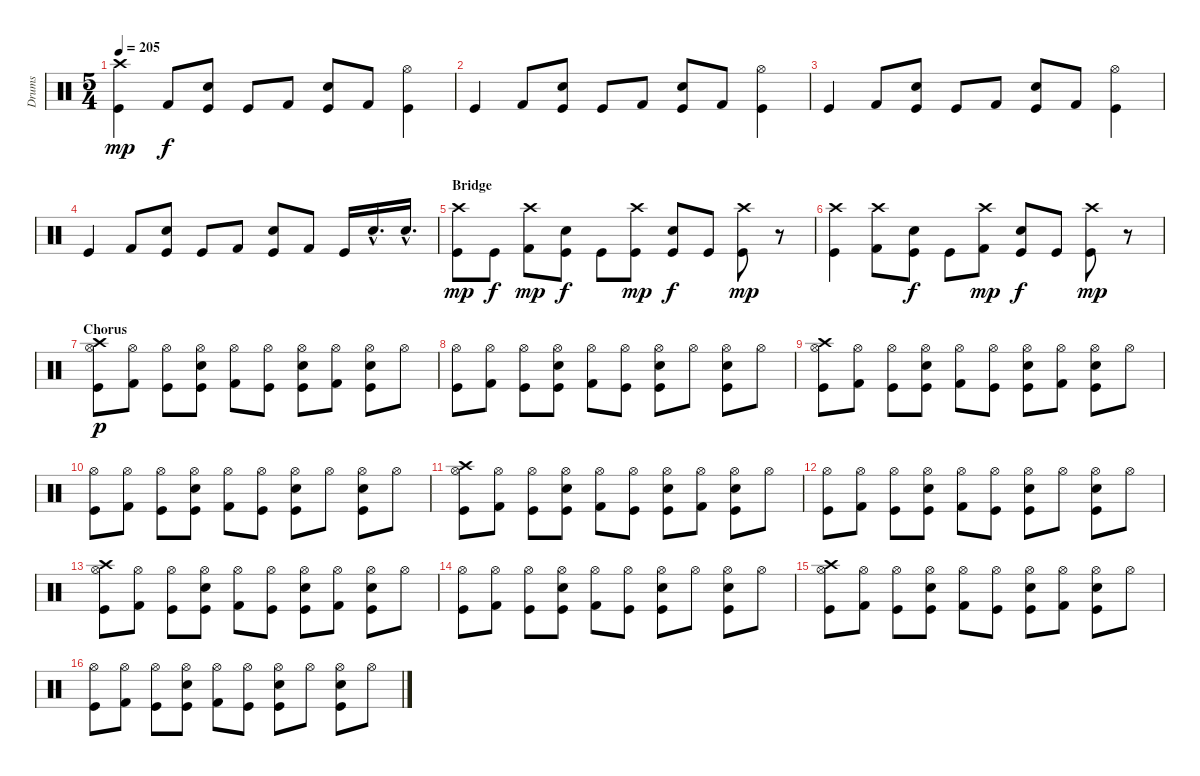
\track ("Drums" "Drums") {instrument percussion}
\staff {score}
\articulation defaults
\ts (5 4)
\tempo 205
\clef neutral
\ks c
("Crash high (hit)" "Kick (hit)").4{dy mp} "Kick (hit) 2".8{dy f} ("Snare (hit) 2" "Kick (hit)").8 "Kick (hit)".8 "Kick (hit) 2".8 ("Snare (hit) 2" "Kick (hit)").8 "Kick (hit) 2".8 ("Hi-Hat (open)" "Kick (hit)").4 |
"Kick (hit)".4 "Kick (hit) 2".8 ("Snare (hit) 2" "Kick (hit)").8 "Kick (hit)".8 "Kick (hit) 2".8 ("Snare (hit) 2" "Kick (hit)").8 "Kick (hit) 2".8 ("Hi-Hat (open)" "Kick (hit)").4 |
"Kick (hit)".4 "Kick (hit) 2".8 ("Snare (hit) 2" "Kick (hit)").8 "Kick (hit)".8 "Kick (hit) 2".8 ("Snare (hit) 2" "Kick (hit)").8 "Kick (hit) 2".8 ("Hi-Hat (open)" "Kick (hit)").4 |
"Kick (hit)".4 "Kick (hit) 2".8 ("Snare (hit) 2" "Kick (hit)").8 "Kick (hit)".8 "Kick (hit) 2".8 ("Snare (hit) 2" "Kick (hit)").8 "Kick (hit) 2".8 "Kick (hit)".16 "Snare (hit) 2"{hac}.16{d} "Snare (hit) 2"{hac}.16{d} |
\section ("" "Bridge")
("Crash high (hit)" "Kick (hit)").8{dy mp} "Kick (hit)".8{dy f} ("Crash high (hit)" "Kick (hit) 2").8{dy mp} ("Snare (hit) 2" "Kick (hit)").8{dy f} "Kick (hit)".8 ("Crash high (hit)" "Kick (hit)").8{dy mp} ("Snare (hit) 2" "Kick (hit)").8{dy f} "Kick (hit)".8 ("Crash high (hit)" "Kick (hit)").8{dy mp} r.8 |
("Crash high (hit)" "Kick (hit)").4 ("Crash high (hit)" "Kick (hit) 2").8 ("Snare (hit) 2" "Kick (hit)").8{dy f} "Kick (hit)".8 ("Crash high (hit)" "Kick (hit) 2").8{dy mp} ("Snare (hit) 2" "Kick (hit)").8{dy f} "Kick (hit)".8 ("Crash high (hit)" "Kick (hit)").8{dy mp} r.8 |
\section ("" "Chorus")
("Crash high (hit)" "Hi-Hat (open)" "Kick (hit)").8{dy p} ("Hi-Hat (open)" "Kick (hit) 2").8 ("Hi-Hat (open)" "Kick (hit)").8 ("Hi-Hat (open)" "Snare (hit) 2" "Kick (hit)").8 ("Hi-Hat (open)" "Kick (hit) 2").8 ("Hi-Hat (open)" "Kick (hit)").8 ("Hi-Hat (open)" "Snare (hit) 2" "Kick (hit)").8 ("Hi-Hat (open)" "Kick (hit) 2").8 ("Hi-Hat (open)" "Snare (hit) 2" "Kick (hit)").8 "Hi-Hat (open)".8 |
("Hi-Hat (open)" "Kick (hit)").8 ("Hi-Hat (open)" "Kick (hit) 2").8 ("Hi-Hat (open)" "Kick (hit)").8 ("Hi-Hat (open)" "Snare (hit) 2" "Kick (hit)").8 ("Hi-Hat (open)" "Kick (hit) 2").8 ("Hi-Hat (open)" "Kick (hit)").8 ("Hi-Hat (open)" "Snare (hit) 2" "Kick (hit)").8 "Hi-Hat (open)".8 ("Hi-Hat (open)" "Snare (hit) 2" "Kick (hit)").8 "Hi-Hat (open)".8 |
("Crash high (hit)" "Hi-Hat (open)" "Kick (hit)").8 ("Hi-Hat (open)" "Kick (hit) 2").8 ("Hi-Hat (open)" "Kick (hit)").8 ("Hi-Hat (open)" "Snare (hit) 2" "Kick (hit)").8 ("Hi-Hat (open)" "Kick (hit) 2").8 ("Hi-Hat (open)" "Kick (hit)").8 ("Hi-Hat (open)" "Snare (hit) 2" "Kick (hit)").8 ("Hi-Hat (open)" "Kick (hit) 2").8 ("Hi-Hat (open)" "Snare (hit) 2" "Kick (hit)").8 "Hi-Hat (open)".8 |
("Hi-Hat (open)" "Kick (hit)").8 ("Hi-Hat (open)" "Kick (hit) 2").8 ("Hi-Hat (open)" "Kick (hit)").8 ("Hi-Hat (open)" "Snare (hit) 2" "Kick (hit)").8 ("Hi-Hat (open)" "Kick (hit) 2").8 ("Hi-Hat (open)" "Kick (hit)").8 ("Hi-Hat (open)" "Snare (hit) 2" "Kick (hit)").8 "Hi-Hat (open)".8 ("Hi-Hat (open)" "Snare (hit) 2" "Kick (hit)").8 "Hi-Hat (open)".8 |
("Crash high (hit)" "Hi-Hat (open)" "Kick (hit)").8 ("Hi-Hat (open)" "Kick (hit) 2").8 ("Hi-Hat (open)" "Kick (hit)").8 ("Hi-Hat (open)" "Snare (hit) 2" "Kick (hit)").8 ("Hi-Hat (open)" "Kick (hit) 2").8 ("Hi-Hat (open)" "Kick (hit)").8 ("Hi-Hat (open)" "Snare (hit) 2" "Kick (hit)").8 ("Hi-Hat (open)" "Kick (hit) 2").8 ("Hi-Hat (open)" "Snare (hit) 2" "Kick (hit)").8 "Hi-Hat (open)".8 |
("Hi-Hat (open)" "Kick (hit)").8 ("Hi-Hat (open)" "Kick (hit) 2").8 ("Hi-Hat (open)" "Kick (hit)").8 ("Hi-Hat (open)" "Snare (hit) 2" "Kick (hit)").8 ("Hi-Hat (open)" "Kick (hit) 2").8 ("Hi-Hat (open)" "Kick (hit)").8 ("Hi-Hat (open)" "Snare (hit) 2" "Kick (hit)").8 "Hi-Hat (open)".8 ("Hi-Hat (open)" "Snare (hit) 2" "Kick (hit)").8 "Hi-Hat (open)".8 |
("Crash high (hit)" "Hi-Hat (open)" "Kick (hit)").8 ("Hi-Hat (open)" "Kick (hit) 2").8 ("Hi-Hat (open)" "Kick (hit)").8 ("Hi-Hat (open)" "Snare (hit) 2" "Kick (hit)").8 ("Hi-Hat (open)" "Kick (hit) 2").8 ("Hi-Hat (open)" "Kick (hit)").8 ("Hi-Hat (open)" "Snare (hit) 2" "Kick (hit)").8 ("Hi-Hat (open)" "Kick (hit) 2").8 ("Hi-Hat (open)" "Snare (hit) 2" "Kick (hit)").8 "Hi-Hat (open)".8 |
("Hi-Hat (open)" "Kick (hit)").8 ("Hi-Hat (open)" "Kick (hit) 2").8 ("Hi-Hat (open)" "Kick (hit)").8 ("Hi-Hat (open)" "Snare (hit) 2" "Kick (hit)").8 ("Hi-Hat (open)" "Kick (hit) 2").8 ("Hi-Hat (open)" "Kick (hit)").8 ("Hi-Hat (open)" "Snare (hit) 2" "Kick (hit)").8 "Hi-Hat (open)".8 ("Hi-Hat (open)" "Snare (hit) 2" "Kick (hit)").8 "Hi-Hat (open)".8 |
("Crash high (hit)" "Hi-Hat (open)" "Kick (hit)").8 ("Hi-Hat (open)" "Kick (hit) 2").8 ("Hi-Hat (open)" "Kick (hit)").8 ("Hi-Hat (open)" "Snare (hit) 2" "Kick (hit)").8 ("Hi-Hat (open)" "Kick (hit) 2").8 ("Hi-Hat (open)" "Kick (hit)").8 ("Hi-Hat (open)" "Snare (hit) 2" "Kick (hit)").8 ("Hi-Hat (open)" "Kick (hit) 2").8 ("Hi-Hat (open)" "Snare (hit) 2" "Kick (hit)").8 "Hi-Hat (open)".8 |
("Hi-Hat (open)" "Kick (hit)").8 ("Hi-Hat (open)" "Kick (hit) 2").8 ("Hi-Hat (open)" "Kick (hit)").8 ("Hi-Hat (open)" "Snare (hit) 2" "Kick (hit)").8 ("Hi-Hat (open)" "Kick (hit) 2").8 ("Hi-Hat (open)" "Kick (hit)").8 ("Hi-Hat (open)" "Snare (hit) 2" "Kick (hit)").8 "Hi-Hat (open)".8 ("Hi-Hat (open)" "Snare (hit) 2" "Kick (hit)").8 "Hi-Hat (open)".8
